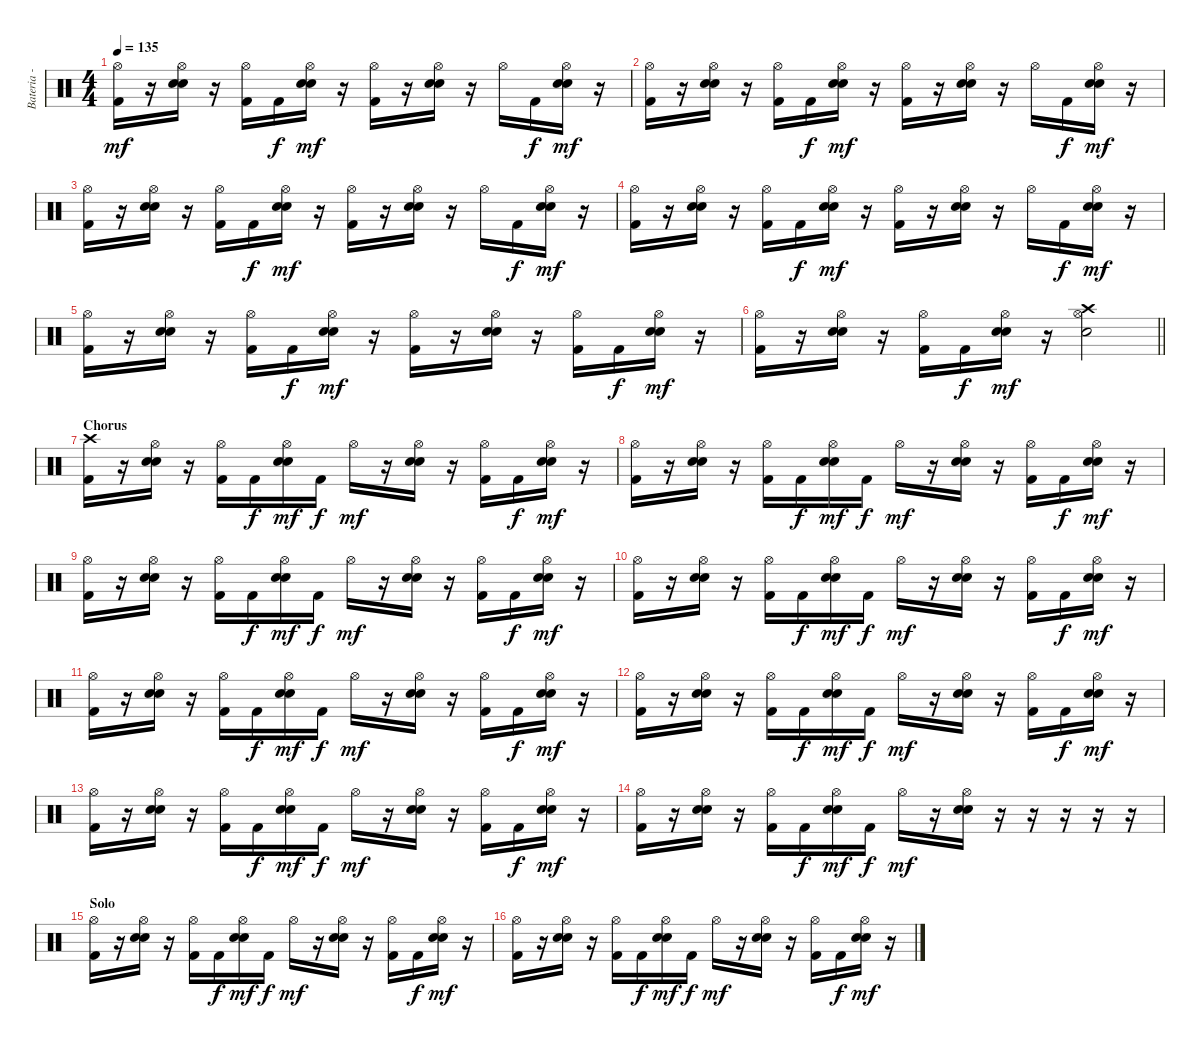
\track ("Bateria - Larzon" "Bateria - ") {instrument percussion}
\staff {score}
\articulation defaults
\ts (4 4)
\tempo 135
\clef neutral
\ks c
("Kick (hit) 2" "Hi-Hat (open)").16{dy mf} r.16 ("Electric Snare (hit)" "Electric Snare (hit)" "Hi-Hat (open)").16 r.16 ("Kick (hit) 2" "Hi-Hat (open)").16 "Kick (hit) 2".16{dy f} ("Electric Snare (hit)" "Electric Snare (hit)" "Hi-Hat (open)").16{dy mf} r.16 ("Kick (hit) 2" "Hi-Hat (open)").16 r.16 ("Electric Snare (hit)" "Electric Snare (hit)" "Hi-Hat (open)").16 r.16 "Hi-Hat (open)".16 "Kick (hit) 2".16{dy f} ("Electric Snare (hit)" "Electric Snare (hit)" "Hi-Hat (open)").16{dy mf} r.16 |
("Kick (hit) 2" "Hi-Hat (open)").16 r.16 ("Electric Snare (hit)" "Electric Snare (hit)" "Hi-Hat (open)").16 r.16 ("Kick (hit) 2" "Hi-Hat (open)").16 "Kick (hit) 2".16{dy f} ("Electric Snare (hit)" "Electric Snare (hit)" "Hi-Hat (open)").16{dy mf} r.16 ("Kick (hit) 2" "Hi-Hat (open)").16 r.16 ("Electric Snare (hit)" "Electric Snare (hit)" "Hi-Hat (open)").16 r.16 "Hi-Hat (open)".16 "Kick (hit) 2".16{dy f} ("Electric Snare (hit)" "Electric Snare (hit)" "Hi-Hat (open)").16{dy mf} r.16 |
("Kick (hit) 2" "Hi-Hat (open)").16 r.16 ("Electric Snare (hit)" "Electric Snare (hit)" "Hi-Hat (open)").16 r.16 ("Kick (hit) 2" "Hi-Hat (open)").16 "Kick (hit) 2".16{dy f} ("Electric Snare (hit)" "Electric Snare (hit)" "Hi-Hat (open)").16{dy mf} r.16 ("Kick (hit) 2" "Hi-Hat (open)").16 r.16 ("Electric Snare (hit)" "Electric Snare (hit)" "Hi-Hat (open)").16 r.16 "Hi-Hat (open)".16 "Kick (hit) 2".16{dy f} ("Electric Snare (hit)" "Electric Snare (hit)" "Hi-Hat (open)").16{dy mf} r.16 |
("Kick (hit) 2" "Hi-Hat (open)").16 r.16 ("Electric Snare (hit)" "Electric Snare (hit)" "Hi-Hat (open)").16 r.16 ("Kick (hit) 2" "Hi-Hat (open)").16 "Kick (hit) 2".16{dy f} ("Electric Snare (hit)" "Electric Snare (hit)" "Hi-Hat (open)").16{dy mf} r.16 ("Kick (hit) 2" "Hi-Hat (open)").16 r.16 ("Electric Snare (hit)" "Electric Snare (hit)" "Hi-Hat (open)").16 r.16 "Hi-Hat (open)".16 "Kick (hit) 2".16{dy f} ("Electric Snare (hit)" "Electric Snare (hit)" "Hi-Hat (open)").16{dy mf} r.16 |
("Kick (hit) 2" "Hi-Hat (open)").16 r.16 ("Electric Snare (hit)" "Electric Snare (hit)" "Hi-Hat (open)").16 r.16 ("Kick (hit) 2" "Hi-Hat (open)").16 "Kick (hit) 2".16{dy f} ("Electric Snare (hit)" "Electric Snare (hit)" "Hi-Hat (open)").16{dy mf} r.16 ("Kick (hit) 2" "Hi-Hat (open)").16 r.16 ("Electric Snare (hit)" "Electric Snare (hit)" "Hi-Hat (open)").16 r.16 ("Kick (hit) 2" "Hi-Hat (open)").16 "Kick (hit) 2".16{dy f} ("Electric Snare (hit)" "Electric Snare (hit)" "Hi-Hat (open)").16{dy mf} r.16 |
\barLineRight lightlight
("Kick (hit) 2" "Hi-Hat (open)").16 r.16 ("Electric Snare (hit)" "Electric Snare (hit)" "Hi-Hat (open)").16 r.16 ("Kick (hit) 2" "Hi-Hat (open)").16 "Kick (hit) 2".16{dy f} ("Electric Snare (hit)" "Electric Snare (hit)" "Hi-Hat (open)").16{dy mf} r.16 ("Crash high (hit)" "Electric Snare (hit)" "Hi-Hat (open)").2 |
\section ("" "Chorus")
("Kick (hit) 2" "Crash high (hit)").16 r.16 ("Electric Snare (hit)" "Electric Snare (hit)" "Hi-Hat (open)").16 r.16 ("Kick (hit) 2" "Hi-Hat (open)").16 "Kick (hit) 2".16{dy f} ("Electric Snare (hit)" "Electric Snare (hit)" "Hi-Hat (open)").16{dy mf} "Kick (hit) 2".16{dy f} "Hi-Hat (open)".16{dy mf} r.16 ("Electric Snare (hit)" "Electric Snare (hit)" "Hi-Hat (open)").16 r.16 ("Kick (hit) 2" "Hi-Hat (open)").16 "Kick (hit) 2".16{dy f} ("Electric Snare (hit)" "Electric Snare (hit)" "Hi-Hat (open)").16{dy mf} r.16 |
("Kick (hit) 2" "Hi-Hat (open)").16 r.16 ("Electric Snare (hit)" "Electric Snare (hit)" "Hi-Hat (open)").16 r.16 ("Kick (hit) 2" "Hi-Hat (open)").16 "Kick (hit) 2".16{dy f} ("Electric Snare (hit)" "Electric Snare (hit)" "Hi-Hat (open)").16{dy mf} "Kick (hit) 2".16{dy f} "Hi-Hat (open)".16{dy mf} r.16 ("Electric Snare (hit)" "Electric Snare (hit)" "Hi-Hat (open)").16 r.16 ("Kick (hit) 2" "Hi-Hat (open)").16 "Kick (hit) 2".16{dy f} ("Electric Snare (hit)" "Electric Snare (hit)" "Hi-Hat (open)").16{dy mf} r.16 |
("Kick (hit) 2" "Hi-Hat (open)").16 r.16 ("Electric Snare (hit)" "Electric Snare (hit)" "Hi-Hat (open)").16 r.16 ("Kick (hit) 2" "Hi-Hat (open)").16 "Kick (hit) 2".16{dy f} ("Electric Snare (hit)" "Electric Snare (hit)" "Hi-Hat (open)").16{dy mf} "Kick (hit) 2".16{dy f} "Hi-Hat (open)".16{dy mf} r.16 ("Electric Snare (hit)" "Electric Snare (hit)" "Hi-Hat (open)").16 r.16 ("Kick (hit) 2" "Hi-Hat (open)").16 "Kick (hit) 2".16{dy f} ("Electric Snare (hit)" "Electric Snare (hit)" "Hi-Hat (open)").16{dy mf} r.16 |
("Kick (hit) 2" "Hi-Hat (open)").16 r.16 ("Electric Snare (hit)" "Electric Snare (hit)" "Hi-Hat (open)").16 r.16 ("Kick (hit) 2" "Hi-Hat (open)").16 "Kick (hit) 2".16{dy f} ("Electric Snare (hit)" "Electric Snare (hit)" "Hi-Hat (open)").16{dy mf} "Kick (hit) 2".16{dy f} "Hi-Hat (open)".16{dy mf} r.16 ("Electric Snare (hit)" "Electric Snare (hit)" "Hi-Hat (open)").16 r.16 ("Kick (hit) 2" "Hi-Hat (open)").16 "Kick (hit) 2".16{dy f} ("Electric Snare (hit)" "Electric Snare (hit)" "Hi-Hat (open)").16{dy mf} r.16 |
("Kick (hit) 2" "Hi-Hat (open)").16 r.16 ("Electric Snare (hit)" "Electric Snare (hit)" "Hi-Hat (open)").16 r.16 ("Kick (hit) 2" "Hi-Hat (open)").16 "Kick (hit) 2".16{dy f} ("Electric Snare (hit)" "Electric Snare (hit)" "Hi-Hat (open)").16{dy mf} "Kick (hit) 2".16{dy f} "Hi-Hat (open)".16{dy mf} r.16 ("Electric Snare (hit)" "Electric Snare (hit)" "Hi-Hat (open)").16 r.16 ("Kick (hit) 2" "Hi-Hat (open)").16 "Kick (hit) 2".16{dy f} ("Electric Snare (hit)" "Electric Snare (hit)" "Hi-Hat (open)").16{dy mf} r.16 |
("Kick (hit) 2" "Hi-Hat (open)").16 r.16 ("Electric Snare (hit)" "Electric Snare (hit)" "Hi-Hat (open)").16 r.16 ("Kick (hit) 2" "Hi-Hat (open)").16 "Kick (hit) 2".16{dy f} ("Electric Snare (hit)" "Electric Snare (hit)" "Hi-Hat (open)").16{dy mf} "Kick (hit) 2".16{dy f} "Hi-Hat (open)".16{dy mf} r.16 ("Electric Snare (hit)" "Electric Snare (hit)" "Hi-Hat (open)").16 r.16 ("Kick (hit) 2" "Hi-Hat (open)").16 "Kick (hit) 2".16{dy f} ("Electric Snare (hit)" "Electric Snare (hit)" "Hi-Hat (open)").16{dy mf} r.16 |
("Kick (hit) 2" "Hi-Hat (open)").16 r.16 ("Electric Snare (hit)" "Electric Snare (hit)" "Hi-Hat (open)").16 r.16 ("Kick (hit) 2" "Hi-Hat (open)").16 "Kick (hit) 2".16{dy f} ("Electric Snare (hit)" "Electric Snare (hit)" "Hi-Hat (open)").16{dy mf} "Kick (hit) 2".16{dy f} "Hi-Hat (open)".16{dy mf} r.16 ("Electric Snare (hit)" "Electric Snare (hit)" "Hi-Hat (open)").16 r.16 ("Kick (hit) 2" "Hi-Hat (open)").16 "Kick (hit) 2".16{dy f} ("Electric Snare (hit)" "Electric Snare (hit)" "Hi-Hat (open)").16{dy mf} r.16 |
("Kick (hit) 2" "Hi-Hat (open)").16 r.16 ("Electric Snare (hit)" "Electric Snare (hit)" "Hi-Hat (open)").16 r.16 ("Kick (hit) 2" "Hi-Hat (open)").16 "Kick (hit) 2".16{dy f} ("Electric Snare (hit)" "Electric Snare (hit)" "Hi-Hat (open)").16{dy mf} "Kick (hit) 2".16{dy f} "Hi-Hat (open)".16{dy mf} r.16 ("Electric Snare (hit)" "Electric Snare (hit)" "Hi-Hat (open)").16 r.16 r.16 r.16 r.16 r.16 |
\section ("" "Solo")
("Kick (hit) 2" "Hi-Hat (open)").16 r.16 ("Electric Snare (hit)" "Electric Snare (hit)" "Hi-Hat (open)").16 r.16 ("Kick (hit) 2" "Hi-Hat (open)").16 "Kick (hit) 2".16{dy f} ("Electric Snare (hit)" "Electric Snare (hit)" "Hi-Hat (open)").16{dy mf} "Kick (hit) 2".16{dy f} "Hi-Hat (open)".16{dy mf} r.16 ("Electric Snare (hit)" "Electric Snare (hit)" "Hi-Hat (open)").16 r.16 ("Kick (hit) 2" "Hi-Hat (open)").16 "Kick (hit) 2".16{dy f} ("Electric Snare (hit)" "Electric Snare (hit)" "Hi-Hat (open)").16{dy mf} r.16 |
("Kick (hit) 2" "Hi-Hat (open)").16 r.16 ("Electric Snare (hit)" "Electric Snare (hit)" "Hi-Hat (open)").16 r.16 ("Kick (hit) 2" "Hi-Hat (open)").16 "Kick (hit) 2".16{dy f} ("Electric Snare (hit)" "Electric Snare (hit)" "Hi-Hat (open)").16{dy mf} "Kick (hit) 2".16{dy f} "Hi-Hat (open)".16{dy mf} r.16 ("Electric Snare (hit)" "Electric Snare (hit)" "Hi-Hat (open)").16 r.16 ("Kick (hit) 2" "Hi-Hat (open)").16 "Kick (hit) 2".16{dy f} ("Electric Snare (hit)" "Electric Snare (hit)" "Hi-Hat (open)").16{dy mf} r.16
